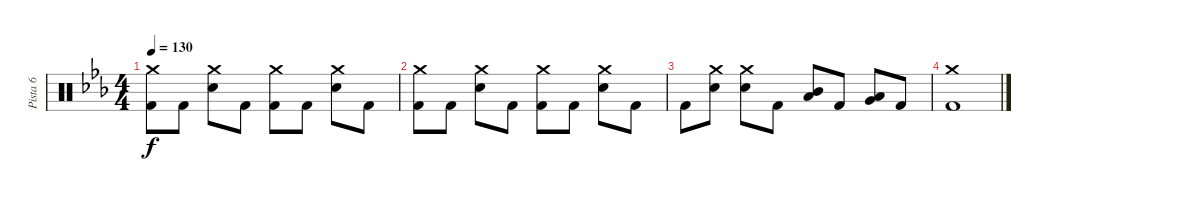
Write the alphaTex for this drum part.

\track ("Pista 6" "Pista 6") {instrument percussion}
\staff {score}
\articulation defaults
\ts (4 4)
\tempo 130
\clef neutral
\ks eb
("Crash medium (hit)" "Kick (hit) 2").8{dy f} "Kick (hit) 2".8 ("Crash medium (hit)" "Snare (hit) 2").8 "Kick (hit) 2".8 ("Crash medium (hit)" "Kick (hit) 2").8 "Kick (hit) 2".8 ("Crash medium (hit)" "Snare (hit) 2").8 "Kick (hit) 2".8 |
("Crash medium (hit)" "Kick (hit) 2").8 "Kick (hit) 2".8 ("Crash medium (hit)" "Snare (hit) 2").8 "Kick (hit) 2".8 ("Crash medium (hit)" "Kick (hit) 2").8 "Kick (hit) 2".8 ("Crash medium (hit)" "Snare (hit) 2").8 "Kick (hit) 2".8 |
"Kick (hit) 2".8 ("Crash medium (hit)" "Snare (hit) 2").8 ("Crash medium (hit)" "Snare (hit) 2").8 "Kick (hit) 2".8 ("Mid Tom (hit)" "Low Tom (hit)").8 "Kick (hit) 2".8 ("Low Tom (hit)" "Very Low Tom (hit)").8 "Kick (hit) 2".8 |
("Crash medium (hit)" "Kick (hit) 2").1
